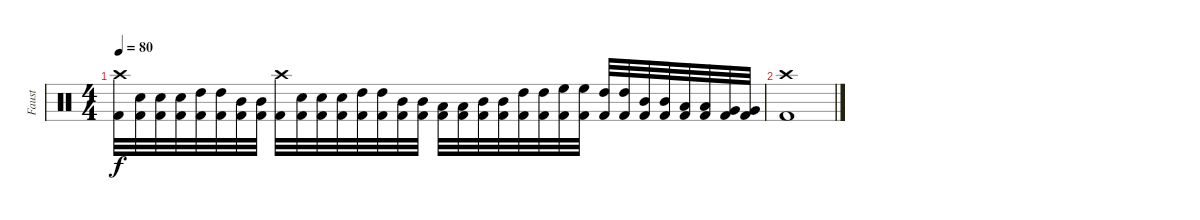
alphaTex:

\track ("Faust" "Faust") {instrument percussion}
\staff {score}
\articulation defaults
\ts (4 4)
\tempo 80
\clef neutral
\ks c
("Crash high (hit)" "Kick (hit) 2").32{dy f} ("Electric Snare (hit)" "Kick (hit) 2").32 ("Electric Snare (hit)" "Kick (hit) 2").32 ("Electric Snare (hit)" "Kick (hit) 2").32 ("High Tom (hit)" "Kick (hit) 2").32 ("High Tom (hit)" "Kick (hit) 2").32 ("Mid Tom (hit)" "Kick (hit) 2").32 ("Mid Tom (hit)" "Kick (hit) 2").32 ("Crash high (hit)" "Kick (hit) 2").32 ("Electric Snare (hit)" "Kick (hit) 2").32 ("Electric Snare (hit)" "Kick (hit) 2").32 ("Electric Snare (hit)" "Kick (hit) 2").32 ("High Tom (hit)" "Kick (hit) 2").32 ("High Tom (hit)" "Kick (hit) 2").32 ("Mid Tom (hit)" "Kick (hit) 2").32 ("Mid Tom (hit)" "Kick (hit) 2").32 ("Low Tom (hit)" "Kick (hit) 2").32 ("Low Tom (hit)" "Kick (hit) 2").32 ("Mid Tom (hit)" "Kick (hit) 2").32 ("Mid Tom (hit)" "Kick (hit) 2").32 ("High Tom (hit)" "Kick (hit) 2").32 ("High Tom (hit)" "Kick (hit) 2").32 ("High Floor Tom (hit)" "Kick (hit) 2").32 ("High Floor Tom (hit)" "Kick (hit) 2").32 ("High Tom (hit)" "Kick (hit) 2").32 ("High Tom (hit)" "Kick (hit) 2").32 ("Mid Tom (hit)" "Kick (hit) 2").32 ("Mid Tom (hit)" "Kick (hit) 2").32 ("Low Tom (hit)" "Kick (hit) 2").32 ("Low Tom (hit)" "Kick (hit) 2").32 ("Very Low Tom (hit)" "Kick (hit) 2").32 ("Very Low Tom (hit)" "Kick (hit) 2").32 |
("Crash high (hit)" "Kick (hit) 2").1
